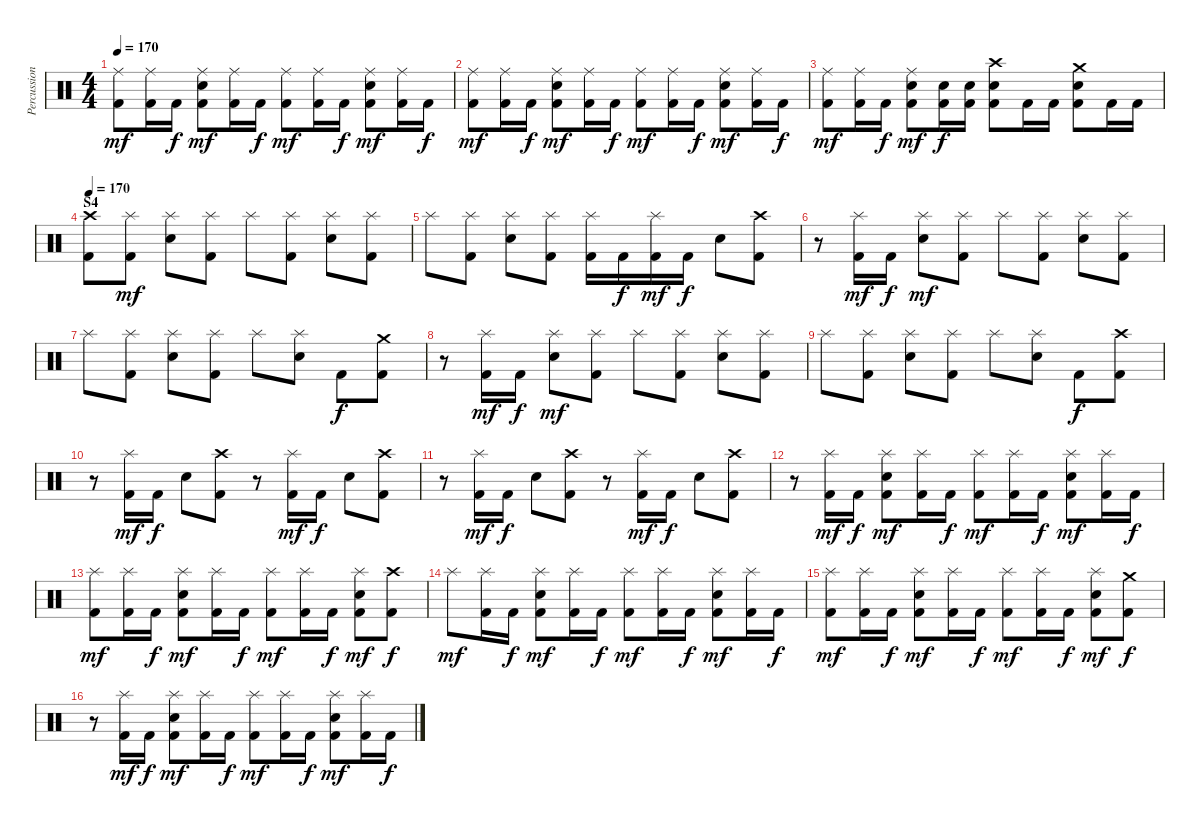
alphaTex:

\track ("Percussion" "Percussion") {instrument percussion}
\staff {score}
\articulation defaults
\ts (4 4)
\tempo 170
\clef neutral
\ks c
("Ride (middle)" "Kick (hit) 2").8{dy mf} ("Ride (middle)" "Kick (hit) 2").16 "Kick (hit) 2".16{dy f} ("Ride (middle)" "Electric Snare (hit)" "Kick (hit) 2").8{dy mf} ("Ride (middle)" "Kick (hit) 2").16 "Kick (hit) 2".16{dy f} ("Ride (middle)" "Kick (hit) 2").8{dy mf} ("Ride (middle)" "Kick (hit) 2").16 "Kick (hit) 2".16{dy f} ("Ride (middle)" "Electric Snare (hit)" "Kick (hit) 2").8{dy mf} ("Ride (middle)" "Kick (hit) 2").16 "Kick (hit) 2".16{dy f} |
("Ride (middle)" "Kick (hit) 2").8{dy mf} ("Ride (middle)" "Kick (hit) 2").16 "Kick (hit) 2".16{dy f} ("Ride (middle)" "Electric Snare (hit)" "Kick (hit) 2").8{dy mf} ("Ride (middle)" "Kick (hit) 2").16 "Kick (hit) 2".16{dy f} ("Ride (middle)" "Kick (hit) 2").8{dy mf} ("Ride (middle)" "Kick (hit) 2").16 "Kick (hit) 2".16{dy f} ("Ride (middle)" "Electric Snare (hit)" "Kick (hit) 2").8{dy mf} ("Ride (middle)" "Kick (hit) 2").16 "Kick (hit) 2".16{dy f} |
("Ride (middle)" "Kick (hit) 2").8{dy mf} ("Ride (middle)" "Kick (hit) 2").16 "Kick (hit) 2".16{dy f} ("Ride (middle)" "Electric Snare (hit)" "Kick (hit) 2").8{dy mf} ("Electric Snare (hit)" "Kick (hit) 2").16{dy f} ("Electric Snare (hit)" "Kick (hit) 2").16 ("Crash high (hit)" "Electric Snare (hit)" "Kick (hit) 2").8 "Kick (hit) 2".16 "Kick (hit) 2".16 ("Crash medium (hit)" "Electric Snare (hit)" "Kick (hit) 2").8 "Kick (hit) 2".16 "Kick (hit) 2".16 |
\section ("" "S4")
\tempo 170
("Crash high (hit)" "Kick (hit) 2").8 ("Splash (hit)" "Kick (hit) 2").8{dy mf} ("Splash (hit)" "Electric Snare (hit)").8 ("Splash (hit)" "Kick (hit) 2").8 "Splash (hit)".8 ("Splash (hit)" "Kick (hit) 2").8 ("Splash (hit)" "Electric Snare (hit)").8 ("Splash (hit)" "Kick (hit) 2").8 |
"Splash (hit)".8 ("Splash (hit)" "Kick (hit) 2").8 ("Splash (hit)" "Electric Snare (hit)").8 ("Splash (hit)" "Kick (hit) 2").8 ("Splash (hit)" "Kick (hit) 2").16 "Kick (hit) 2".16{dy f} ("Splash (hit)" "Kick (hit) 2").16{dy mf} "Kick (hit) 2".16{dy f} "Electric Snare (hit)".8 ("Crash high (hit)" "Kick (hit) 2").8 |
r.8 ("Splash (hit)" "Kick (hit) 2").16{dy mf} "Kick (hit) 2".16{dy f} ("Splash (hit)" "Electric Snare (hit)").8{dy mf} ("Splash (hit)" "Kick (hit) 2").8 "Splash (hit)".8 ("Splash (hit)" "Kick (hit) 2").8 ("Splash (hit)" "Electric Snare (hit)").8 ("Splash (hit)" "Kick (hit) 2").8 |
"Splash (hit)".8 ("Splash (hit)" "Kick (hit) 2").8 ("Splash (hit)" "Electric Snare (hit)").8 ("Splash (hit)" "Kick (hit) 2").8 "Splash (hit)".8 ("Splash (hit)" "Electric Snare (hit)").8 "Kick (hit) 2".8{dy f} ("Crash medium (hit)" "Kick (hit) 2").8 |
r.8 ("Splash (hit)" "Kick (hit) 2").16{dy mf} "Kick (hit) 2".16{dy f} ("Splash (hit)" "Electric Snare (hit)").8{dy mf} ("Splash (hit)" "Kick (hit) 2").8 "Splash (hit)".8 ("Splash (hit)" "Kick (hit) 2").8 ("Splash (hit)" "Electric Snare (hit)").8 ("Splash (hit)" "Kick (hit) 2").8 |
"Splash (hit)".8 ("Splash (hit)" "Kick (hit) 2").8 ("Splash (hit)" "Electric Snare (hit)").8 ("Splash (hit)" "Kick (hit) 2").8 "Splash (hit)".8 ("Splash (hit)" "Electric Snare (hit)").8 "Kick (hit) 2".8{dy f} ("Crash high (hit)" "Kick (hit) 2").8 |
r.8 ("Splash (hit)" "Kick (hit) 2").16{dy mf} "Kick (hit) 2".16{dy f} "Electric Snare (hit)".8 ("Crash high (hit)" "Kick (hit) 2").8 r.8 ("Splash (hit)" "Kick (hit) 2").16{dy mf} "Kick (hit) 2".16{dy f} "Electric Snare (hit)".8 ("Crash high (hit)" "Kick (hit) 2").8 |
r.8 ("Splash (hit)" "Kick (hit) 2").16{dy mf} "Kick (hit) 2".16{dy f} "Electric Snare (hit)".8 ("Crash high (hit)" "Kick (hit) 2").8 r.8 ("Splash (hit)" "Kick (hit) 2").16{dy mf} "Kick (hit) 2".16{dy f} "Electric Snare (hit)".8 ("Crash high (hit)" "Kick (hit) 2").8 |
\section ("" "")
r.8 ("Splash (hit)" "Kick (hit) 2").16{dy mf} "Kick (hit) 2".16{dy f} ("Splash (hit)" "Electric Snare (hit)" "Kick (hit) 2").8{dy mf} ("Splash (hit)" "Kick (hit) 2").16 "Kick (hit) 2".16{dy f} ("Splash (hit)" "Kick (hit) 2").8{dy mf} ("Splash (hit)" "Kick (hit) 2").16 "Kick (hit) 2".16{dy f} ("Splash (hit)" "Electric Snare (hit)" "Kick (hit) 2").8{dy mf} ("Splash (hit)" "Kick (hit) 2").16 "Kick (hit) 2".16{dy f} |
("Splash (hit)" "Kick (hit) 2").8{dy mf} ("Splash (hit)" "Kick (hit) 2").16 "Kick (hit) 2".16{dy f} ("Splash (hit)" "Electric Snare (hit)" "Kick (hit) 2").8{dy mf} ("Splash (hit)" "Kick (hit) 2").16 "Kick (hit) 2".16{dy f} ("Splash (hit)" "Kick (hit) 2").8{dy mf} ("Splash (hit)" "Kick (hit) 2").16 "Kick (hit) 2".16{dy f} ("Splash (hit)" "Electric Snare (hit)" "Kick (hit) 2").8{dy mf} ("Crash high (hit)" "Kick (hit) 2").8{dy f} |
"Splash (hit)".8{dy mf} ("Splash (hit)" "Kick (hit) 2").16 "Kick (hit) 2".16{dy f} ("Splash (hit)" "Electric Snare (hit)" "Kick (hit) 2").8{dy mf} ("Splash (hit)" "Kick (hit) 2").16 "Kick (hit) 2".16{dy f} ("Splash (hit)" "Kick (hit) 2").8{dy mf} ("Splash (hit)" "Kick (hit) 2").16 "Kick (hit) 2".16{dy f} ("Splash (hit)" "Electric Snare (hit)" "Kick (hit) 2").8{dy mf} ("Splash (hit)" "Kick (hit) 2").16 "Kick (hit) 2".16{dy f} |
("Splash (hit)" "Kick (hit) 2").8{dy mf} ("Splash (hit)" "Kick (hit) 2").16 "Kick (hit) 2".16{dy f} ("Splash (hit)" "Electric Snare (hit)" "Kick (hit) 2").8{dy mf} ("Splash (hit)" "Kick (hit) 2").16 "Kick (hit) 2".16{dy f} ("Splash (hit)" "Kick (hit) 2").8{dy mf} ("Splash (hit)" "Kick (hit) 2").16 "Kick (hit) 2".16{dy f} ("Splash (hit)" "Electric Snare (hit)" "Kick (hit) 2").8{dy mf} ("Crash medium (hit)" "Kick (hit) 2").8{dy f} |
r.8 ("Splash (hit)" "Kick (hit) 2").16{dy mf} "Kick (hit) 2".16{dy f} ("Splash (hit)" "Electric Snare (hit)" "Kick (hit) 2").8{dy mf} ("Splash (hit)" "Kick (hit) 2").16 "Kick (hit) 2".16{dy f} ("Splash (hit)" "Kick (hit) 2").8{dy mf} ("Splash (hit)" "Kick (hit) 2").16 "Kick (hit) 2".16{dy f} ("Splash (hit)" "Electric Snare (hit)" "Kick (hit) 2").8{dy mf} ("Splash (hit)" "Kick (hit) 2").16 "Kick (hit) 2".16{dy f}
